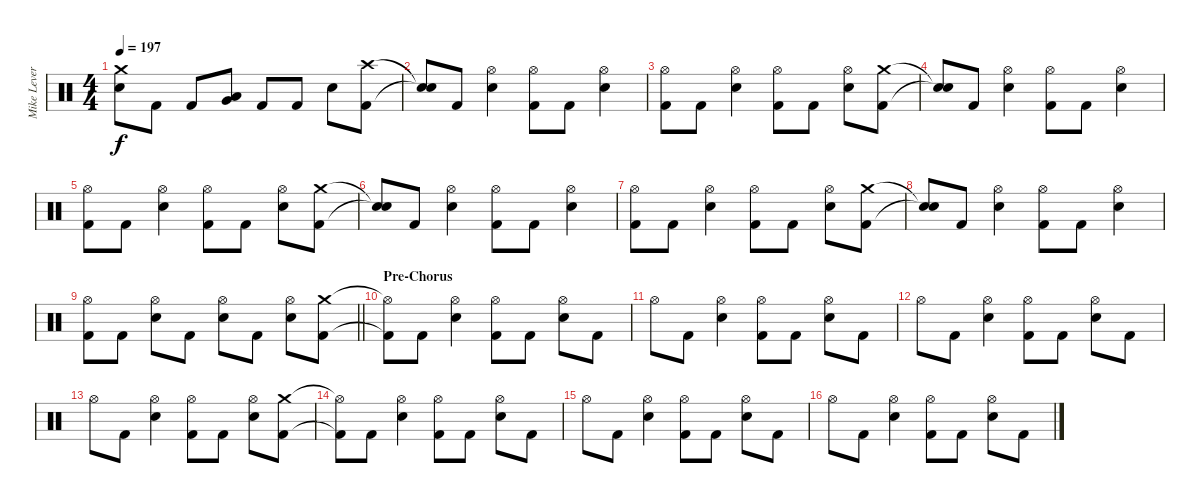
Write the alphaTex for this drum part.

\track ("Mike Leverence - Drums" "Mike Lever") {instrument percussion}
\staff {score}
\articulation defaults
\ts (4 4)
\tempo 197
\clef neutral
\ks c
("Crash medium (hit)" "Electric Snare (hit)").8{dy f} "Kick (hit) 2".8 "Kick (hit) 2".8 ("Low Tom (hit)" "Very Low Tom (hit)").8 "Kick (hit) 2".8 "Kick (hit) 2".8 "Electric Snare (hit)".8 ("Crash high (hit)" "Kick (hit) 2").8 |
("Snare (hit)"{t} "Snare (hit)"{t}).8 "Kick (hit) 2".8 ("Hi-Hat (open)" "Electric Snare (hit)").4 ("Hi-Hat (open)" "Kick (hit) 2").8 "Kick (hit) 2".8 ("Hi-Hat (open)" "Electric Snare (hit)").4 |
("Hi-Hat (open)" "Kick (hit) 2").8 "Kick (hit) 2".8 ("Hi-Hat (open)" "Electric Snare (hit)").4 ("Hi-Hat (open)" "Kick (hit) 2").8 "Kick (hit) 2".8 ("Hi-Hat (open)" "Electric Snare (hit)").8 ("Crash medium (hit)" "Kick (hit) 2").8 |
("Snare (hit)"{t} "Snare (hit)"{t}).8 "Kick (hit) 2".8 ("Hi-Hat (open)" "Electric Snare (hit)").4 ("Hi-Hat (open)" "Kick (hit) 2").8 "Kick (hit) 2".8 ("Hi-Hat (open)" "Electric Snare (hit)").4 |
("Hi-Hat (open)" "Kick (hit) 2").8 "Kick (hit) 2".8 ("Hi-Hat (open)" "Electric Snare (hit)").4 ("Hi-Hat (open)" "Kick (hit) 2").8 "Kick (hit) 2".8 ("Hi-Hat (open)" "Electric Snare (hit)").8 ("Crash medium (hit)" "Kick (hit) 2").8 |
("Snare (hit)"{t} "Snare (hit)"{t}).8 "Kick (hit) 2".8 ("Hi-Hat (open)" "Electric Snare (hit)").4 ("Hi-Hat (open)" "Kick (hit) 2").8 "Kick (hit) 2".8 ("Hi-Hat (open)" "Electric Snare (hit)").4 |
("Hi-Hat (open)" "Kick (hit) 2").8 "Kick (hit) 2".8 ("Hi-Hat (open)" "Electric Snare (hit)").4 ("Hi-Hat (open)" "Kick (hit) 2").8 "Kick (hit) 2".8 ("Hi-Hat (open)" "Electric Snare (hit)").8 ("Crash medium (hit)" "Kick (hit) 2").8 |
("Snare (hit)"{t} "Snare (hit)"{t}).8 "Kick (hit) 2".8 ("Hi-Hat (open)" "Electric Snare (hit)").4 ("Hi-Hat (open)" "Kick (hit) 2").8 "Kick (hit) 2".8 ("Hi-Hat (open)" "Electric Snare (hit)").4 |
\barLineRight lightlight
("Hi-Hat (open)" "Kick (hit) 2").8 "Kick (hit) 2".8 ("Hi-Hat (open)" "Electric Snare (hit)").8 "Kick (hit) 2".8 ("Hi-Hat (open)" "Electric Snare (hit)").8 "Kick (hit) 2".8 ("Hi-Hat (open)" "Electric Snare (hit)").8 ("Crash medium (hit)" "Kick (hit) 2").8 |
\section ("" "Pre-Chorus")
("Hi-Hat (open)"{t} "Kick (hit) 2"{t}).8 "Kick (hit) 2".8 ("Hi-Hat (open)" "Electric Snare (hit)").4 ("Hi-Hat (open)" "Kick (hit) 2").8 "Kick (hit) 2".8 ("Hi-Hat (open)" "Electric Snare (hit)").8 "Kick (hit) 2".8 |
"Hi-Hat (open)".8 "Kick (hit) 2".8 ("Hi-Hat (open)" "Electric Snare (hit)").4 ("Hi-Hat (open)" "Kick (hit) 2").8 "Kick (hit) 2".8 ("Hi-Hat (open)" "Electric Snare (hit)").8 "Kick (hit) 2".8 |
"Hi-Hat (open)".8 "Kick (hit) 2".8 ("Hi-Hat (open)" "Electric Snare (hit)").4 ("Hi-Hat (open)" "Kick (hit) 2").8 "Kick (hit) 2".8 ("Hi-Hat (open)" "Electric Snare (hit)").8 "Kick (hit) 2".8 |
"Hi-Hat (open)".8 "Kick (hit) 2".8 ("Hi-Hat (open)" "Electric Snare (hit)").4 ("Hi-Hat (open)" "Kick (hit) 2").8 "Kick (hit) 2".8 ("Hi-Hat (open)" "Electric Snare (hit)").8 ("Crash medium (hit)" "Kick (hit) 2").8 |
("Hi-Hat (open)"{t} "Kick (hit) 2"{t}).8 "Kick (hit) 2".8 ("Hi-Hat (open)" "Electric Snare (hit)").4 ("Hi-Hat (open)" "Kick (hit) 2").8 "Kick (hit) 2".8 ("Hi-Hat (open)" "Electric Snare (hit)").8 "Kick (hit) 2".8 |
"Hi-Hat (open)".8 "Kick (hit) 2".8 ("Hi-Hat (open)" "Electric Snare (hit)").4 ("Hi-Hat (open)" "Kick (hit) 2").8 "Kick (hit) 2".8 ("Hi-Hat (open)" "Electric Snare (hit)").8 "Kick (hit) 2".8 |
"Hi-Hat (open)".8 "Kick (hit) 2".8 ("Hi-Hat (open)" "Electric Snare (hit)").4 ("Hi-Hat (open)" "Kick (hit) 2").8 "Kick (hit) 2".8 ("Hi-Hat (open)" "Electric Snare (hit)").8 "Kick (hit) 2".8
